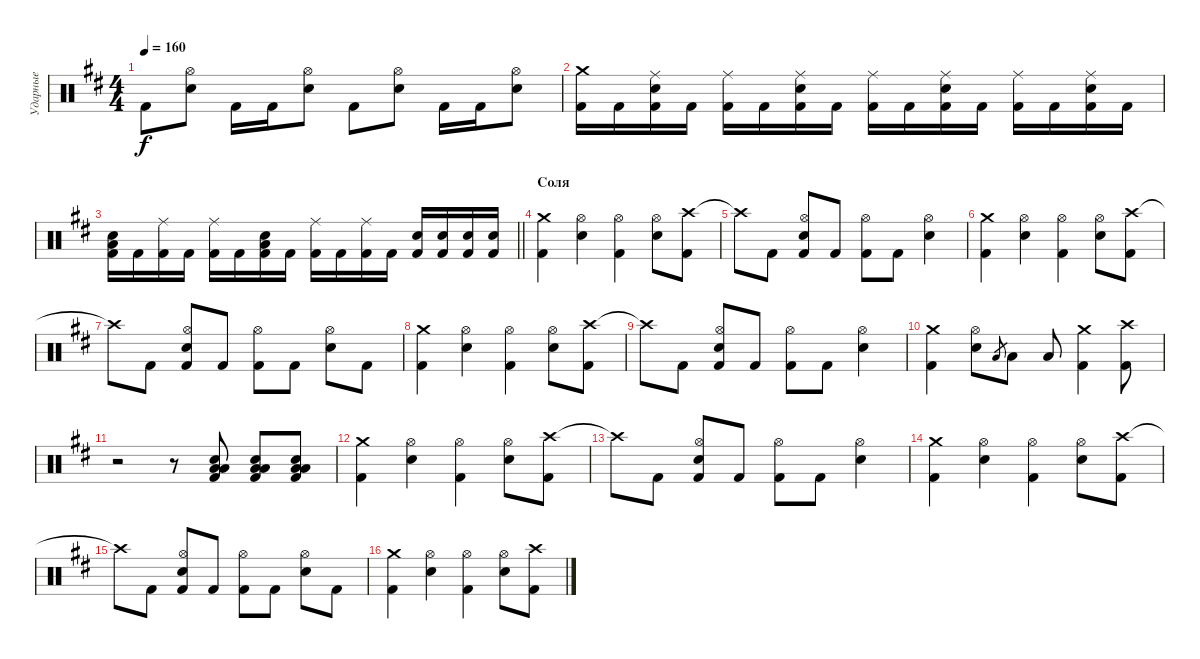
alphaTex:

\track ("Ударные" "Ударные") {instrument percussion}
\staff {score}
\articulation defaults
\ts (4 4)
\tempo 160
\clef neutral
\ks bminor "Kick (hit) 2".8{dy f}
("Hi-Hat (open)" "Snare (hit) 2").8 "Kick (hit) 2".16 "Kick (hit) 2".16 ("Hi-Hat (open)" "Snare (hit) 2").8 "Kick (hit) 2".8 ("Hi-Hat (open)" "Snare (hit) 2").8 "Kick (hit) 2".16 "Kick (hit) 2".16 ("Hi-Hat (open)" "Snare (hit) 2").8 |
("Kick (hit) 2" "Crash medium (hit)").16 "Kick (hit) 2".16 ("Snare (hit) 2" "Kick (hit) 2" "Ride (middle)").16 "Kick (hit) 2".16 ("Kick (hit) 2" "Ride (middle)").16 "Kick (hit) 2".16 ("Snare (hit) 2" "Kick (hit) 2" "Ride (middle)").16 "Kick (hit) 2".16 ("Kick (hit) 2" "Ride (middle)").16 "Kick (hit) 2".16 ("Snare (hit) 2" "Kick (hit) 2" "Ride (middle)").16 "Kick (hit) 2".16 ("Kick (hit) 2" "Ride (middle)").16 "Kick (hit) 2".16 ("Snare (hit) 2" "Kick (hit) 2" "Ride (middle)").16 "Kick (hit) 2".16 |
\barLineRight lightlight
("Snare (hit) 2" "Kick (hit) 2" "Low Tom (hit)").16 "Kick (hit) 2".16 ("Kick (hit) 2" "Ride (middle)").16 "Kick (hit) 2".16 ("Kick (hit) 2" "Ride (middle)").16 "Kick (hit) 2".16 ("Snare (hit) 2" "Kick (hit) 2" "Low Floor Tom (hit)").16 "Kick (hit) 2".16 ("Kick (hit) 2" "Ride (middle)").16 "Kick (hit) 2".16 ("Kick (hit) 2" "Ride (middle)").16 "Kick (hit) 2".16 ("Kick (hit) 2" "Snare (hit) 2").16 ("Kick (hit) 2" "Snare (hit) 2").16 ("Kick (hit) 2" "Snare (hit) 2").16 ("Kick (hit) 2" "Snare (hit) 2").16 |
\section ("" "Соля")
("Crash medium (hit)" "Kick (hit) 2").4 ("Hi-Hat (open)" "Snare (hit) 2").4 ("Hi-Hat (open)" "Kick (hit) 2").4 ("Hi-Hat (open)" "Snare (hit) 2").8 ("Crash high (hit)" "Kick (hit) 2").8 |
"Crash high (hit)"{t}.8 "Kick (hit) 2".8 ("Snare (hit) 2" "Hi-Hat (open)" "Kick (hit) 2").8 "Kick (hit) 2".8 ("Hi-Hat (open)" "Kick (hit) 2").8 "Kick (hit) 2".8 ("Snare (hit) 2" "Hi-Hat (open)").4 |
("Crash medium (hit)" "Kick (hit) 2").4 ("Hi-Hat (open)" "Snare (hit) 2").4 ("Hi-Hat (open)" "Kick (hit) 2").4 ("Hi-Hat (open)" "Snare (hit) 2").8 ("Crash high (hit)" "Kick (hit) 2").8 |
"Crash high (hit)"{t}.8 "Kick (hit) 2".8 ("Snare (hit) 2" "Hi-Hat (open)" "Kick (hit) 2").8 "Kick (hit) 2".8 ("Hi-Hat (open)" "Kick (hit) 2").8 "Kick (hit) 2".8 ("Snare (hit) 2" "Hi-Hat (open)").8 "Kick (hit) 2".8 |
("Crash medium (hit)" "Kick (hit) 2").4 ("Hi-Hat (open)" "Snare (hit) 2").4 ("Hi-Hat (open)" "Kick (hit) 2").4 ("Hi-Hat (open)" "Snare (hit) 2").8 ("Crash high (hit)" "Kick (hit) 2").8 |
"Crash high (hit)"{t}.8 "Kick (hit) 2".8 ("Snare (hit) 2" "Hi-Hat (open)" "Kick (hit) 2").8 "Kick (hit) 2".8 ("Hi-Hat (open)" "Kick (hit) 2").8 "Kick (hit) 2".8 ("Snare (hit) 2" "Hi-Hat (open)").4 |
("Crash medium (hit)" "Kick (hit) 2").4 ("Hi-Hat (open)" "Snare (hit) 2").8 "Low Tom (hit)".8{gr} "Low Tom (hit)".8 "Low Tom (hit)".8 ("Kick (hit) 2" "Crash medium (hit)").4 ("Crash high (hit)" "Kick (hit) 2").8 |
r.2 r.8 ("Low Floor Tom (hit)" "Kick (hit) 2" "Low Tom (hit)" "Snare (hit) 2").8 ("Low Floor Tom (hit)" "Kick (hit) 2" "Low Tom (hit)" "Snare (hit) 2").8 ("Low Floor Tom (hit)" "Kick (hit) 2" "Low Tom (hit)" "Snare (hit) 2").8 |
("Crash medium (hit)" "Kick (hit) 2").4 ("Hi-Hat (open)" "Snare (hit) 2").4 ("Hi-Hat (open)" "Kick (hit) 2").4 ("Hi-Hat (open)" "Snare (hit) 2").8 ("Crash high (hit)" "Kick (hit) 2").8 |
"Crash high (hit)"{t}.8 "Kick (hit) 2".8 ("Snare (hit) 2" "Hi-Hat (open)" "Kick (hit) 2").8 "Kick (hit) 2".8 ("Hi-Hat (open)" "Kick (hit) 2").8 "Kick (hit) 2".8 ("Snare (hit) 2" "Hi-Hat (open)").4 |
("Crash medium (hit)" "Kick (hit) 2").4 ("Hi-Hat (open)" "Snare (hit) 2").4 ("Hi-Hat (open)" "Kick (hit) 2").4 ("Hi-Hat (open)" "Snare (hit) 2").8 ("Crash high (hit)" "Kick (hit) 2").8 |
"Crash high (hit)"{t}.8 "Kick (hit) 2".8 ("Snare (hit) 2" "Hi-Hat (open)" "Kick (hit) 2").8 "Kick (hit) 2".8 ("Hi-Hat (open)" "Kick (hit) 2").8 "Kick (hit) 2".8 ("Snare (hit) 2" "Hi-Hat (open)").8 "Kick (hit) 2".8 |
("Crash medium (hit)" "Kick (hit) 2").4 ("Hi-Hat (open)" "Snare (hit) 2").4 ("Hi-Hat (open)" "Kick (hit) 2").4 ("Hi-Hat (open)" "Snare (hit) 2").8 ("Crash high (hit)" "Kick (hit) 2").8
